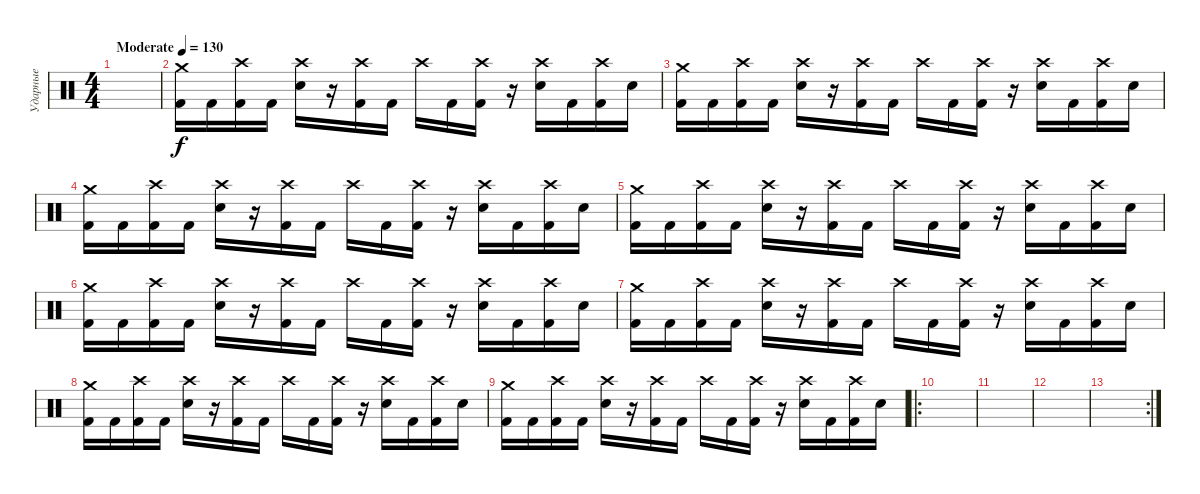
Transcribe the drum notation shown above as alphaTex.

\track ("Ударные" "Ударные") {instrument percussion}
\staff {score}
\articulation defaults
\ts (4 4)
\tempo (130 "Moderate")
\clef neutral
\ks c
|
("Kick (hit) 2" "Crash medium (hit)").16 "Kick (hit) 2".16 ("Kick (hit) 2" "Crash high (hit)").16 "Kick (hit) 2".16 ("Electric Snare (hit)" "Crash high (hit)").16 r.16 ("Kick (hit) 2" "Crash high (hit)").16 "Kick (hit) 2".16 "Crash high (hit)".16 "Kick (hit) 2".16 ("Kick (hit) 2" "Crash high (hit)").16 r.16 ("Electric Snare (hit)" "Crash high (hit)").16 "Kick (hit) 2".16 ("Kick (hit) 2" "Crash high (hit)").16 "Electric Snare (hit)".16 |
("Kick (hit) 2" "Crash medium (hit)").16 "Kick (hit) 2".16 ("Kick (hit) 2" "Crash high (hit)").16 "Kick (hit) 2".16 ("Electric Snare (hit)" "Crash high (hit)").16 r.16 ("Kick (hit) 2" "Crash high (hit)").16 "Kick (hit) 2".16 "Crash high (hit)".16 "Kick (hit) 2".16 ("Kick (hit) 2" "Crash high (hit)").16 r.16 ("Electric Snare (hit)" "Crash high (hit)").16 "Kick (hit) 2".16 ("Kick (hit) 2" "Crash high (hit)").16 "Electric Snare (hit)".16 |
("Kick (hit) 2" "Crash medium (hit)").16 "Kick (hit) 2".16 ("Kick (hit) 2" "Crash high (hit)").16 "Kick (hit) 2".16 ("Electric Snare (hit)" "Crash high (hit)").16 r.16 ("Kick (hit) 2" "Crash high (hit)").16 "Kick (hit) 2".16 "Crash high (hit)".16 "Kick (hit) 2".16 ("Kick (hit) 2" "Crash high (hit)").16 r.16 ("Electric Snare (hit)" "Crash high (hit)").16 "Kick (hit) 2".16 ("Kick (hit) 2" "Crash high (hit)").16 "Electric Snare (hit)".16 |
("Kick (hit) 2" "Crash medium (hit)").16 "Kick (hit) 2".16 ("Kick (hit) 2" "Crash high (hit)").16 "Kick (hit) 2".16 ("Electric Snare (hit)" "Crash high (hit)").16 r.16 ("Kick (hit) 2" "Crash high (hit)").16 "Kick (hit) 2".16 "Crash high (hit)".16 "Kick (hit) 2".16 ("Kick (hit) 2" "Crash high (hit)").16 r.16 ("Electric Snare (hit)" "Crash high (hit)").16 "Kick (hit) 2".16 ("Kick (hit) 2" "Crash high (hit)").16 "Electric Snare (hit)".16 |
("Kick (hit) 2" "Crash medium (hit)").16 "Kick (hit) 2".16 ("Kick (hit) 2" "Crash high (hit)").16 "Kick (hit) 2".16 ("Electric Snare (hit)" "Crash high (hit)").16 r.16 ("Kick (hit) 2" "Crash high (hit)").16 "Kick (hit) 2".16 "Crash high (hit)".16 "Kick (hit) 2".16 ("Kick (hit) 2" "Crash high (hit)").16 r.16 ("Electric Snare (hit)" "Crash high (hit)").16 "Kick (hit) 2".16 ("Kick (hit) 2" "Crash high (hit)").16 "Electric Snare (hit)".16 |
("Kick (hit) 2" "Crash medium (hit)").16 "Kick (hit) 2".16 ("Kick (hit) 2" "Crash high (hit)").16 "Kick (hit) 2".16 ("Electric Snare (hit)" "Crash high (hit)").16 r.16 ("Kick (hit) 2" "Crash high (hit)").16 "Kick (hit) 2".16 "Crash high (hit)".16 "Kick (hit) 2".16 ("Kick (hit) 2" "Crash high (hit)").16 r.16 ("Electric Snare (hit)" "Crash high (hit)").16 "Kick (hit) 2".16 ("Kick (hit) 2" "Crash high (hit)").16 "Electric Snare (hit)".16 |
("Kick (hit) 2" "Crash medium (hit)").16 "Kick (hit) 2".16 ("Kick (hit) 2" "Crash high (hit)").16 "Kick (hit) 2".16 ("Electric Snare (hit)" "Crash high (hit)").16 r.16 ("Kick (hit) 2" "Crash high (hit)").16 "Kick (hit) 2".16 "Crash high (hit)".16 "Kick (hit) 2".16 ("Kick (hit) 2" "Crash high (hit)").16 r.16 ("Electric Snare (hit)" "Crash high (hit)").16 "Kick (hit) 2".16 ("Kick (hit) 2" "Crash high (hit)").16 "Electric Snare (hit)".16 |
("Kick (hit) 2" "Crash medium (hit)").16 "Kick (hit) 2".16 ("Kick (hit) 2" "Crash high (hit)").16 "Kick (hit) 2".16 ("Electric Snare (hit)" "Crash high (hit)").16 r.16 ("Kick (hit) 2" "Crash high (hit)").16 "Kick (hit) 2".16 "Crash high (hit)".16 "Kick (hit) 2".16 ("Kick (hit) 2" "Crash high (hit)").16 r.16 ("Electric Snare (hit)" "Crash high (hit)").16 "Kick (hit) 2".16 ("Kick (hit) 2" "Crash high (hit)").16 "Electric Snare (hit)".16 |
\ro
|
|
|
\rc 2
